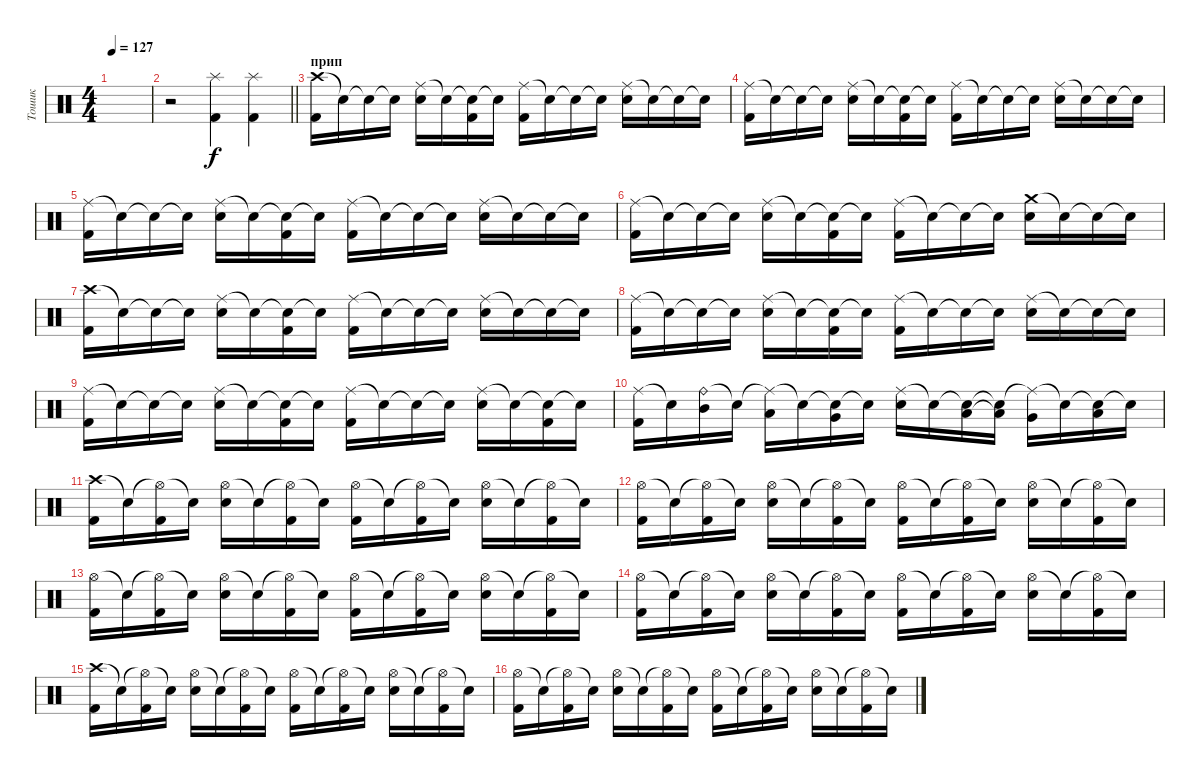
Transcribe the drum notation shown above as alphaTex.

\track ("Тошик" "Тошик") {instrument percussion}
\staff {score}
\articulation defaults
\ts (4 4)
\tempo 127
\clef neutral
\ks c
|
\barLineRight lightlight
r.2 ("Splash (hit)" "Kick (hit) 2").4 ("Splash (hit)" "Kick (hit) 2").4 |
\section ("" "прип")
("Crash high (hit)" "Kick (hit) 2").16 "Snare (hit)"{t}.16 "Snare (hit)"{t}.16 "Snare (hit)"{t}.16 ("Ride (middle)" "Snare (hit) 2").16 "Snare (hit)"{t}.16 ("Snare (hit)"{t} "Kick (hit) 2").16 "Snare (hit)"{t}.16 ("Ride (middle)" "Kick (hit) 2").16 "Snare (hit)"{t}.16 "Snare (hit)"{t}.16 "Snare (hit)"{t}.16 ("Ride (middle)" "Snare (hit) 2").16 "Snare (hit)"{t}.16 "Snare (hit)"{t}.16 "Snare (hit)"{t}.16 |
("Ride (middle)" "Kick (hit) 2").16 "Snare (hit)"{t}.16 "Snare (hit)"{t}.16 "Snare (hit)"{t}.16 ("Ride (middle)" "Snare (hit) 2").16 "Snare (hit)"{t}.16 ("Snare (hit)"{t} "Kick (hit) 2").16 "Snare (hit)"{t}.16 ("Ride (middle)" "Kick (hit) 2").16 "Snare (hit)"{t}.16 "Snare (hit)"{t}.16 "Snare (hit)"{t}.16 ("Ride (middle)" "Snare (hit) 2").16 "Snare (hit)"{t}.16 "Snare (hit)"{t}.16 "Snare (hit)"{t}.16 |
("Ride (middle)" "Kick (hit) 2").16 "Snare (hit)"{t}.16 "Snare (hit)"{t}.16 "Snare (hit)"{t}.16 ("Ride (middle)" "Snare (hit) 2").16 "Snare (hit)"{t}.16 ("Snare (hit)"{t} "Kick (hit) 2").16 "Snare (hit)"{t}.16 ("Ride (middle)" "Kick (hit) 2").16 "Snare (hit)"{t}.16 "Snare (hit)"{t}.16 "Snare (hit)"{t}.16 ("Ride (middle)" "Snare (hit) 2").16 "Snare (hit)"{t}.16 "Snare (hit)"{t}.16 "Snare (hit)"{t}.16 |
("Ride (middle)" "Kick (hit) 2").16 "Snare (hit)"{t}.16 "Snare (hit)"{t}.16 "Snare (hit)"{t}.16 ("Ride (middle)" "Snare (hit) 2").16 "Snare (hit)"{t}.16 ("Snare (hit)"{t} "Kick (hit) 2").16 "Snare (hit)"{t}.16 ("Ride (middle)" "Kick (hit) 2").16 "Snare (hit)"{t}.16 "Snare (hit)"{t}.16 "Snare (hit)"{t}.16 ("Crash medium (hit)" "Snare (hit) 2").16 "Snare (hit)"{t}.16 "Snare (hit)"{t}.16 "Snare (hit)"{t}.16 |
("Crash high (hit)" "Kick (hit) 2").16 "Snare (hit)"{t}.16 "Snare (hit)"{t}.16 "Snare (hit)"{t}.16 ("Ride (middle)" "Snare (hit) 2").16 "Snare (hit)"{t}.16 ("Snare (hit)"{t} "Kick (hit) 2").16 "Snare (hit)"{t}.16 ("Ride (middle)" "Kick (hit) 2").16 "Snare (hit)"{t}.16 "Snare (hit)"{t}.16 "Snare (hit)"{t}.16 ("Ride (middle)" "Snare (hit) 2").16 "Snare (hit)"{t}.16 "Snare (hit)"{t}.16 "Snare (hit)"{t}.16 |
("Ride (middle)" "Kick (hit) 2").16 "Snare (hit)"{t}.16 "Snare (hit)"{t}.16 "Snare (hit)"{t}.16 ("Ride (middle)" "Snare (hit) 2").16 "Snare (hit)"{t}.16 ("Snare (hit)"{t} "Kick (hit) 2").16 "Snare (hit)"{t}.16 ("Ride (middle)" "Kick (hit) 2").16 "Snare (hit)"{t}.16 "Snare (hit)"{t}.16 "Snare (hit)"{t}.16 ("Ride (middle)" "Snare (hit) 2").16 "Snare (hit)"{t}.16 "Snare (hit)"{t}.16 "Snare (hit)"{t}.16 |
("Ride (middle)" "Kick (hit) 2").16 "Snare (hit)"{t}.16 "Snare (hit)"{t}.16 "Snare (hit)"{t}.16 ("Ride (middle)" "Snare (hit) 2").16 "Snare (hit)"{t}.16 ("Snare (hit)"{t} "Kick (hit) 2").16 "Snare (hit)"{t}.16 ("Ride (middle)" "Kick (hit) 2").16 "Snare (hit)"{t}.16 "Snare (hit)"{t}.16 "Snare (hit)"{t}.16 ("Ride (middle)" "Snare (hit) 2").16 "Snare (hit)"{t}.16 ("Snare (hit)"{t} "Kick (hit) 2").16 "Snare (hit)"{t}.16 |
("Ride (middle)" "Kick (hit) 2").16 "Snare (hit)"{t}.16 ("Ride (bell)" "Mid Tom (hit)").16 "Snare (hit)"{t}.16 ("Ride (middle)"{t} "Low Tom (hit)").16 "Snare (hit)"{t}.16 ("Snare (hit)"{t} "Very Low Tom (hit)").16 "Snare (hit)"{t}.16 ("Ride (middle)" "Snare (hit) 2").16 "Snare (hit)"{t}.16 ("Snare (hit)"{t} "Low Tom (hit)").16 ("Snare (hit)"{t} "Low Tom (hit)"{t}).16 ("Ride (middle)"{t} "Very Low Tom (hit)").16 "Snare (hit)"{t}.16 ("Snare (hit)"{t} "Low Floor Tom (hit)").16 "Snare (hit)"{t}.16 |
("Crash high (hit)" "Kick (hit) 2").16 "Snare (hit)"{t}.16 ("Hi-Hat (open)"{t} "Kick (hit) 2").16 "Snare (hit)"{t}.16 ("Hi-Hat (open)" "Snare (hit) 2").16 "Snare (hit)"{t}.16 ("Hi-Hat (open)"{t} "Kick (hit) 2").16 "Snare (hit)"{t}.16 ("Hi-Hat (open)" "Kick (hit) 2").16 "Snare (hit)"{t}.16 ("Hi-Hat (open)"{t} "Kick (hit) 2").16 "Snare (hit)"{t}.16 ("Hi-Hat (open)" "Snare (hit) 2").16 "Snare (hit)"{t}.16 ("Hi-Hat (open)"{t} "Kick (hit) 2").16 "Snare (hit)"{t}.16 |
("Hi-Hat (open)" "Kick (hit) 2").16 "Snare (hit)"{t}.16 ("Hi-Hat (open)"{t} "Kick (hit) 2").16 "Snare (hit)"{t}.16 ("Hi-Hat (open)" "Snare (hit) 2").16 "Snare (hit)"{t}.16 ("Hi-Hat (open)"{t} "Kick (hit) 2").16 "Snare (hit)"{t}.16 ("Hi-Hat (open)" "Kick (hit) 2").16 "Snare (hit)"{t}.16 ("Hi-Hat (open)"{t} "Kick (hit) 2").16 "Snare (hit)"{t}.16 ("Hi-Hat (open)" "Snare (hit) 2").16 "Snare (hit)"{t}.16 ("Hi-Hat (open)"{t} "Kick (hit) 2").16 "Snare (hit)"{t}.16 |
("Hi-Hat (open)" "Kick (hit) 2").16 "Snare (hit)"{t}.16 ("Hi-Hat (open)"{t} "Kick (hit) 2").16 "Snare (hit)"{t}.16 ("Hi-Hat (open)" "Snare (hit) 2").16 "Snare (hit)"{t}.16 ("Hi-Hat (open)"{t} "Kick (hit) 2").16 "Snare (hit)"{t}.16 ("Hi-Hat (open)" "Kick (hit) 2").16 "Snare (hit)"{t}.16 ("Hi-Hat (open)"{t} "Kick (hit) 2").16 "Snare (hit)"{t}.16 ("Hi-Hat (open)" "Snare (hit) 2").16 "Snare (hit)"{t}.16 ("Hi-Hat (open)"{t} "Kick (hit) 2").16 "Snare (hit)"{t}.16 |
("Hi-Hat (open)" "Kick (hit) 2").16 "Snare (hit)"{t}.16 ("Hi-Hat (open)"{t} "Kick (hit) 2").16 "Snare (hit)"{t}.16 ("Hi-Hat (open)" "Snare (hit) 2").16 "Snare (hit)"{t}.16 ("Hi-Hat (open)"{t} "Kick (hit) 2").16 "Snare (hit)"{t}.16 ("Hi-Hat (open)" "Kick (hit) 2").16 "Snare (hit)"{t}.16 ("Hi-Hat (open)"{t} "Kick (hit) 2").16 "Snare (hit)"{t}.16 ("Hi-Hat (open)" "Snare (hit) 2").16 "Snare (hit)"{t}.16 ("Hi-Hat (open)"{t} "Kick (hit) 2").16 "Snare (hit)"{t}.16 |
("Crash high (hit)" "Kick (hit) 2").16 "Snare (hit)"{t}.16 ("Hi-Hat (open)"{t} "Kick (hit) 2").16 "Snare (hit)"{t}.16 ("Hi-Hat (open)" "Snare (hit) 2").16 "Snare (hit)"{t}.16 ("Hi-Hat (open)"{t} "Kick (hit) 2").16 "Snare (hit)"{t}.16 ("Hi-Hat (open)" "Kick (hit) 2").16 "Snare (hit)"{t}.16 ("Hi-Hat (open)"{t} "Kick (hit) 2").16 "Snare (hit)"{t}.16 ("Hi-Hat (open)" "Snare (hit) 2").16 "Snare (hit)"{t}.16 ("Hi-Hat (open)"{t} "Kick (hit) 2").16 "Snare (hit)"{t}.16 |
("Hi-Hat (open)" "Kick (hit) 2").16 "Snare (hit)"{t}.16 ("Hi-Hat (open)"{t} "Kick (hit) 2").16 "Snare (hit)"{t}.16 ("Hi-Hat (open)" "Snare (hit) 2").16 "Snare (hit)"{t}.16 ("Hi-Hat (open)"{t} "Kick (hit) 2").16 "Snare (hit)"{t}.16 ("Hi-Hat (open)" "Kick (hit) 2").16 "Snare (hit)"{t}.16 ("Hi-Hat (open)"{t} "Kick (hit) 2").16 "Snare (hit)"{t}.16 ("Hi-Hat (open)" "Snare (hit) 2").16 "Snare (hit)"{t}.16 ("Hi-Hat (open)"{t} "Kick (hit) 2").16 "Snare (hit)"{t}.16
